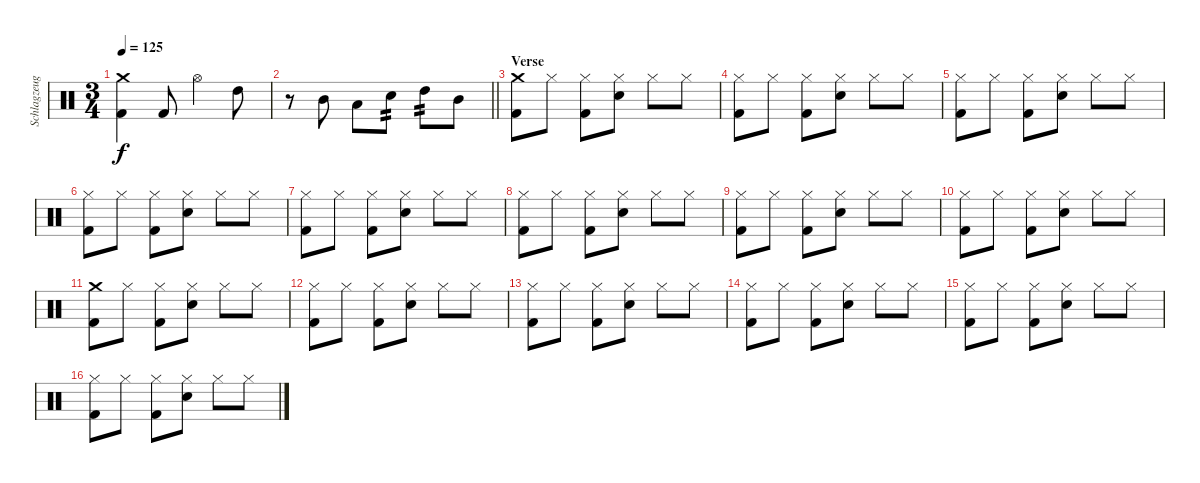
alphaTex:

\track ("Schlagzeug" "Schlagzeug") {instrument percussion}
\staff {score}
\articulation defaults
\ts (3 4)
\tempo 125
\clef neutral
\ks c
("Crash medium (hit)" "Kick (hit) 2").4{dy f} "Kick (hit) 2".8 "Hi-Hat (open)".4 "High Tom (hit)".8 |
\barLineRight lightlight
r.8 "Mid Tom (hit)".8 "Low Tom (hit)".8 "Snare (hit) 2".8{tp 2} "High Tom (hit)".8{tp 2} "Mid Tom (hit)".8 |
\section ("" "Verse")
("Crash medium (hit)" "Kick (hit) 2").8 "Hi-Hat (closed)".8 ("Hi-Hat (closed)" "Kick (hit) 2").8 ("Hi-Hat (closed)" "Snare (hit) 2").8 "Hi-Hat (closed)".8 "Hi-Hat (closed)".8 |
("Hi-Hat (closed)" "Kick (hit) 2").8 "Hi-Hat (closed)".8 ("Hi-Hat (closed)" "Kick (hit) 2").8 ("Hi-Hat (closed)" "Snare (hit) 2").8 "Hi-Hat (closed)".8 "Hi-Hat (closed)".8 |
("Hi-Hat (closed)" "Kick (hit) 2").8 "Hi-Hat (closed)".8 ("Hi-Hat (closed)" "Kick (hit) 2").8 ("Hi-Hat (closed)" "Snare (hit) 2").8 "Hi-Hat (closed)".8 "Hi-Hat (closed)".8 |
("Hi-Hat (closed)" "Kick (hit) 2").8 "Hi-Hat (closed)".8 ("Hi-Hat (closed)" "Kick (hit) 2").8 ("Hi-Hat (closed)" "Snare (hit) 2").8 "Hi-Hat (closed)".8 "Hi-Hat (closed)".8 |
("Hi-Hat (closed)" "Kick (hit) 2").8 "Hi-Hat (closed)".8 ("Hi-Hat (closed)" "Kick (hit) 2").8 ("Hi-Hat (closed)" "Snare (hit) 2").8 "Hi-Hat (closed)".8 "Hi-Hat (closed)".8 |
("Hi-Hat (closed)" "Kick (hit) 2").8 "Hi-Hat (closed)".8 ("Hi-Hat (closed)" "Kick (hit) 2").8 ("Hi-Hat (closed)" "Snare (hit) 2").8 "Hi-Hat (closed)".8 "Hi-Hat (closed)".8 |
("Hi-Hat (closed)" "Kick (hit) 2").8 "Hi-Hat (closed)".8 ("Hi-Hat (closed)" "Kick (hit) 2").8 ("Hi-Hat (closed)" "Snare (hit) 2").8 "Hi-Hat (closed)".8 "Hi-Hat (closed)".8 |
("Hi-Hat (closed)" "Kick (hit) 2").8 "Hi-Hat (closed)".8 ("Hi-Hat (closed)" "Kick (hit) 2").8 ("Hi-Hat (closed)" "Snare (hit) 2").8 "Hi-Hat (closed)".8 "Hi-Hat (closed)".8 |
("Crash medium (hit)" "Kick (hit) 2").8 "Hi-Hat (closed)".8 ("Hi-Hat (closed)" "Kick (hit) 2").8 ("Hi-Hat (closed)" "Snare (hit) 2").8 "Hi-Hat (closed)".8 "Hi-Hat (closed)".8 |
("Hi-Hat (closed)" "Kick (hit) 2").8 "Hi-Hat (closed)".8 ("Hi-Hat (closed)" "Kick (hit) 2").8 ("Hi-Hat (closed)" "Snare (hit) 2").8 "Hi-Hat (closed)".8 "Hi-Hat (closed)".8 |
("Hi-Hat (closed)" "Kick (hit) 2").8 "Hi-Hat (closed)".8 ("Hi-Hat (closed)" "Kick (hit) 2").8 ("Hi-Hat (closed)" "Snare (hit) 2").8 "Hi-Hat (closed)".8 "Hi-Hat (closed)".8 |
("Hi-Hat (closed)" "Kick (hit) 2").8 "Hi-Hat (closed)".8 ("Hi-Hat (closed)" "Kick (hit) 2").8 ("Hi-Hat (closed)" "Snare (hit) 2").8 "Hi-Hat (closed)".8 "Hi-Hat (closed)".8 |
("Hi-Hat (closed)" "Kick (hit) 2").8 "Hi-Hat (closed)".8 ("Hi-Hat (closed)" "Kick (hit) 2").8 ("Hi-Hat (closed)" "Snare (hit) 2").8 "Hi-Hat (closed)".8 "Hi-Hat (closed)".8 |
("Hi-Hat (closed)" "Kick (hit) 2").8 "Hi-Hat (closed)".8 ("Hi-Hat (closed)" "Kick (hit) 2").8 ("Hi-Hat (closed)" "Snare (hit) 2").8 "Hi-Hat (closed)".8 "Hi-Hat (closed)".8
